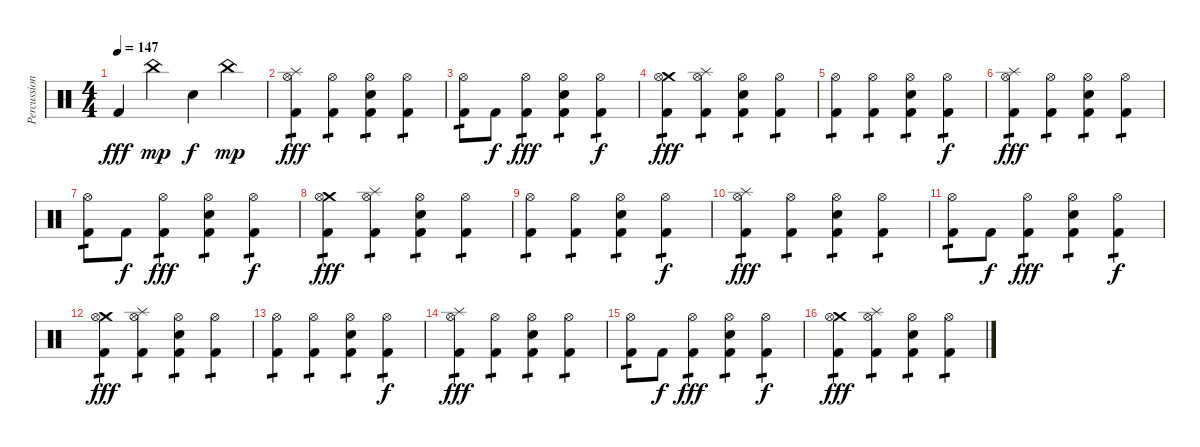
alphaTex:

\track ("Percussion" "Percussion") {instrument percussion}
\staff
\articulation defaults
\ts (4 4)
\tempo 147
\clef neutral
\ks c "Kick (hit) 2".4{dy fff} "China (hit)".4{dy mp} "Electric Snare (hit)".4{dy f} "China (hit)".4{dy mp}
|
("Splash (hit)" "Hi-Hat (open)" "Kick (hit) 2").4{tp 1 dy fff} ("Hi-Hat (open)" "Kick (hit) 2").4{tp 1} ("Hi-Hat (open)" "Electric Snare (hit)" "Kick (hit) 2").4{tp 1} ("Hi-Hat (open)" "Kick (hit) 2").4{tp 1} |
("Hi-Hat (open)" "Kick (hit) 2").8{tp 1} "Kick (hit) 2".8{dy f} ("Hi-Hat (open)" "Kick (hit) 2").4{tp 1 dy fff} ("Hi-Hat (open)" "Electric Snare (hit)" "Kick (hit) 2").4{tp 1} ("Hi-Hat (open)" "Kick (hit) 2").4{tp 1 dy f} |
("Crash medium (hit)" "Hi-Hat (open)" "Kick (hit) 2").4{tp 1 dy fff} ("Splash (hit)" "Hi-Hat (open)" "Kick (hit) 2").4{tp 1} ("Hi-Hat (open)" "Electric Snare (hit)" "Kick (hit) 2").4{tp 1} ("Hi-Hat (open)" "Kick (hit) 2").4{tp 1} |
("Hi-Hat (open)" "Kick (hit) 2").4{tp 1} ("Hi-Hat (open)" "Kick (hit) 2").4{tp 1} ("Hi-Hat (open)" "Electric Snare (hit)" "Kick (hit) 2").4{tp 1} ("Hi-Hat (open)" "Kick (hit) 2").4{tp 1 dy f} |
("Splash (hit)" "Hi-Hat (open)" "Kick (hit) 2").4{tp 1 dy fff} ("Hi-Hat (open)" "Kick (hit) 2").4{tp 1} ("Hi-Hat (open)" "Electric Snare (hit)" "Kick (hit) 2").4{tp 1} ("Hi-Hat (open)" "Kick (hit) 2").4{tp 1} |
("Hi-Hat (open)" "Kick (hit) 2").8{tp 1} "Kick (hit) 2".8{dy f} ("Hi-Hat (open)" "Kick (hit) 2").4{tp 1 dy fff} ("Hi-Hat (open)" "Electric Snare (hit)" "Kick (hit) 2").4{tp 1} ("Hi-Hat (open)" "Kick (hit) 2").4{tp 1 dy f} |
("Crash medium (hit)" "Hi-Hat (open)" "Kick (hit) 2").4{tp 1 dy fff} ("Splash (hit)" "Hi-Hat (open)" "Kick (hit) 2").4{tp 1} ("Hi-Hat (open)" "Electric Snare (hit)" "Kick (hit) 2").4{tp 1} ("Hi-Hat (open)" "Kick (hit) 2").4{tp 1} |
("Hi-Hat (open)" "Kick (hit) 2").4{tp 1} ("Hi-Hat (open)" "Kick (hit) 2").4{tp 1} ("Hi-Hat (open)" "Electric Snare (hit)" "Kick (hit) 2").4{tp 1} ("Hi-Hat (open)" "Kick (hit) 2").4{tp 1 dy f} |
("Splash (hit)" "Hi-Hat (open)" "Kick (hit) 2").4{tp 1 dy fff} ("Hi-Hat (open)" "Kick (hit) 2").4{tp 1} ("Hi-Hat (open)" "Electric Snare (hit)" "Kick (hit) 2").4{tp 1} ("Hi-Hat (open)" "Kick (hit) 2").4{tp 1} |
("Hi-Hat (open)" "Kick (hit) 2").8{tp 1} "Kick (hit) 2".8{dy f} ("Hi-Hat (open)" "Kick (hit) 2").4{tp 1 dy fff} ("Hi-Hat (open)" "Electric Snare (hit)" "Kick (hit) 2").4{tp 1} ("Hi-Hat (open)" "Kick (hit) 2").4{tp 1 dy f} |
("Crash medium (hit)" "Hi-Hat (open)" "Kick (hit) 2").4{tp 1 dy fff} ("Splash (hit)" "Hi-Hat (open)" "Kick (hit) 2").4{tp 1} ("Hi-Hat (open)" "Electric Snare (hit)" "Kick (hit) 2").4{tp 1} ("Hi-Hat (open)" "Kick (hit) 2").4{tp 1} |
("Hi-Hat (open)" "Kick (hit) 2").4{tp 1} ("Hi-Hat (open)" "Kick (hit) 2").4{tp 1} ("Hi-Hat (open)" "Electric Snare (hit)" "Kick (hit) 2").4{tp 1} ("Hi-Hat (open)" "Kick (hit) 2").4{tp 1 dy f} |
("Splash (hit)" "Hi-Hat (open)" "Kick (hit) 2").4{tp 1 dy fff} ("Hi-Hat (open)" "Kick (hit) 2").4{tp 1} ("Hi-Hat (open)" "Electric Snare (hit)" "Kick (hit) 2").4{tp 1} ("Hi-Hat (open)" "Kick (hit) 2").4{tp 1} |
("Hi-Hat (open)" "Kick (hit) 2").8{tp 1} "Kick (hit) 2".8{dy f} ("Hi-Hat (open)" "Kick (hit) 2").4{tp 1 dy fff} ("Hi-Hat (open)" "Electric Snare (hit)" "Kick (hit) 2").4{tp 1} ("Hi-Hat (open)" "Kick (hit) 2").4{tp 1 dy f} |
("Crash medium (hit)" "Hi-Hat (open)" "Kick (hit) 2").4{tp 1 dy fff} ("Splash (hit)" "Hi-Hat (open)" "Kick (hit) 2").4{tp 1} ("Hi-Hat (open)" "Electric Snare (hit)" "Kick (hit) 2").4{tp 1} ("Hi-Hat (open)" "Kick (hit) 2").4{tp 1}
